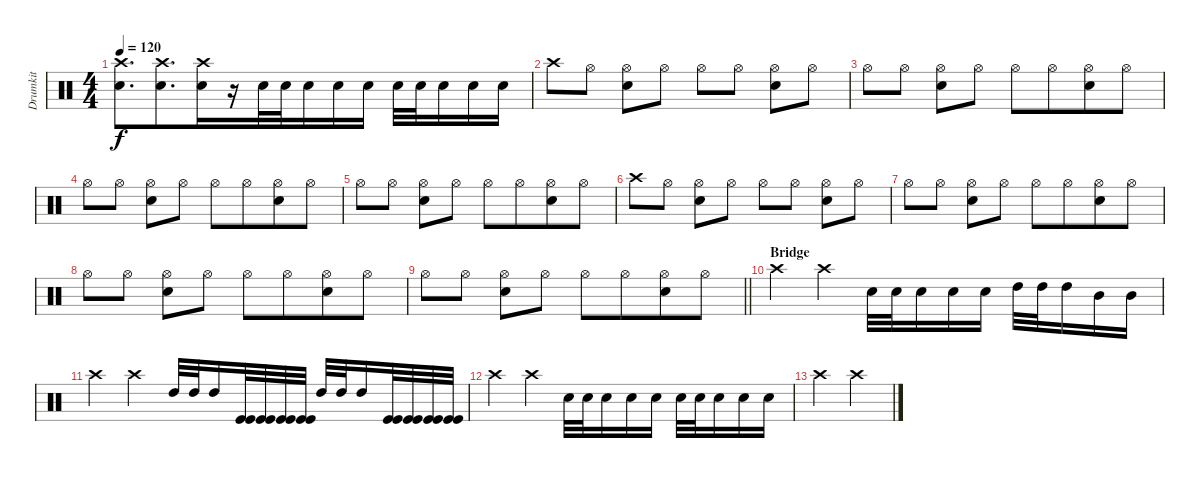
\track ("Drumkit" "Drumkit") {instrument percussion bank 2}
\staff {score}
\articulation defaults
\ts (4 4)
\tempo 120
\clef neutral
\ks c
("Crash high (hit)" "Electric Snare (hit)").8{d dy f} ("Crash high (hit)" "Electric Snare (hit)").8{d beam merge} ("Crash high (hit)" "Electric Snare (hit)").16{beam merge} r.16{beam merge} "Electric Snare (hit)".32{beam merge} "Electric Snare (hit)".32{beam merge} "Electric Snare (hit)".16{beam merge} "Electric Snare (hit)".16 "Electric Snare (hit)".16 "Electric Snare (hit)".32{beam merge} "Electric Snare (hit)".32 "Electric Snare (hit)".16{beam merge} "Electric Snare (hit)".16 "Electric Snare (hit)".16 |
"Crash high (hit)".8{beam merge} "Hi-Hat (open)".8 ("Hi-Hat (open)" "Electric Snare (hit)").8 "Hi-Hat (open)".8 "Hi-Hat (open)".8{beam merge} "Hi-Hat (open)".8 ("Hi-Hat (open)" "Electric Snare (hit)").8{beam merge} "Hi-Hat (open)".8 |
"Hi-Hat (open)".8 "Hi-Hat (open)".8 ("Hi-Hat (open)" "Electric Snare (hit)").8 "Hi-Hat (open)".8 "Hi-Hat (open)".8 "Hi-Hat (open)".8{beam merge} ("Hi-Hat (open)" "Electric Snare (hit)").8{beam merge} "Hi-Hat (open)".8 |
"Hi-Hat (open)".8 "Hi-Hat (open)".8 ("Hi-Hat (open)" "Electric Snare (hit)").8 "Hi-Hat (open)".8 "Hi-Hat (open)".8 "Hi-Hat (open)".8{beam merge} ("Hi-Hat (open)" "Electric Snare (hit)").8{beam merge} "Hi-Hat (open)".8 |
"Hi-Hat (open)".8 "Hi-Hat (open)".8 ("Hi-Hat (open)" "Electric Snare (hit)").8 "Hi-Hat (open)".8 "Hi-Hat (open)".8 "Hi-Hat (open)".8{beam merge} ("Hi-Hat (open)" "Electric Snare (hit)").8{beam merge} "Hi-Hat (open)".8 |
"Crash high (hit)".8{beam merge} "Hi-Hat (open)".8 ("Hi-Hat (open)" "Electric Snare (hit)").8 "Hi-Hat (open)".8 "Hi-Hat (open)".8{beam merge} "Hi-Hat (open)".8 ("Hi-Hat (open)" "Electric Snare (hit)").8{beam merge} "Hi-Hat (open)".8 |
"Hi-Hat (open)".8 "Hi-Hat (open)".8 ("Hi-Hat (open)" "Electric Snare (hit)").8 "Hi-Hat (open)".8 "Hi-Hat (open)".8 "Hi-Hat (open)".8{beam merge} ("Hi-Hat (open)" "Electric Snare (hit)").8{beam merge} "Hi-Hat (open)".8 |
"Hi-Hat (open)".8 "Hi-Hat (open)".8 ("Hi-Hat (open)" "Electric Snare (hit)").8 "Hi-Hat (open)".8 "Hi-Hat (open)".8 "Hi-Hat (open)".8{beam merge} ("Hi-Hat (open)" "Electric Snare (hit)").8{beam merge} "Hi-Hat (open)".8 |
\barLineRight lightlight "Hi-Hat (open)".8 "Hi-Hat (open)".8
("Hi-Hat (open)" "Electric Snare (hit)").8 "Hi-Hat (open)".8 "Hi-Hat (open)".8 "Hi-Hat (open)".8{beam merge} ("Hi-Hat (open)" "Electric Snare (hit)").8{beam merge} "Hi-Hat (open)".8 |
\section ("" "Bridge")
"Crash high (hit)".4{beam merge} "Crash high (hit)".4 "Electric Snare (hit)".32{beam merge} "Electric Snare (hit)".32 "Electric Snare (hit)".16 "Electric Snare (hit)".16 "Electric Snare (hit)".16 "High Tom (hit)".32 "High Tom (hit)".32 "High Tom (hit)".16 "Mid Tom (hit)".16 "Mid Tom (hit)".16 |
"Crash high (hit)".4{beam merge} "Crash high (hit)".4 "High Tom (hit)".32{beam merge} "High Tom (hit)".32 "High Tom (hit)".16{beam merge} ("Kick (hit)" "Kick (hit)").32 ("Kick (hit)" "Kick (hit)").32 ("Kick (hit)" "Kick (hit)").32 ("Kick (hit)" "Kick (hit)").32 "High Tom (hit)".32 "High Tom (hit)".32 "High Tom (hit)".16 ("Kick (hit)" "Kick (hit)").32{beam merge} ("Kick (hit)" "Kick (hit)").32{beam merge} ("Kick (hit)" "Kick (hit)").32 ("Kick (hit)" "Kick (hit)").32 |
"Crash high (hit)".4{beam merge} "Crash high (hit)".4 "Electric Snare (hit)".32{beam merge} "Electric Snare (hit)".32 "Electric Snare (hit)".16 "Electric Snare (hit)".16 "Electric Snare (hit)".16 "Electric Snare (hit)".32 "Electric Snare (hit)".32 "Electric Snare (hit)".16 "Electric Snare (hit)".16 "Electric Snare (hit)".16 |
"Crash high (hit)".4{beam merge} "Crash high (hit)".4
